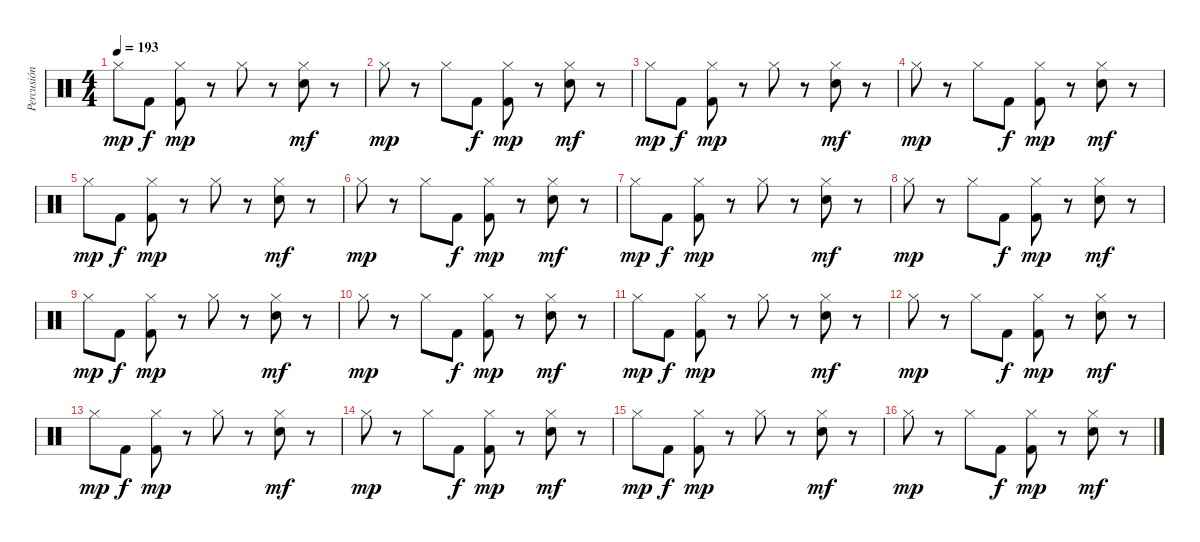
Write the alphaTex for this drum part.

\track ("Percusión" "Percusión") {instrument percussion}
\staff {score}
\articulation defaults
\ts (4 4)
\tempo 193
\clef neutral
\ks c "Hi-Hat (closed)".8{dy mp} "Kick (hit) 2".8{dy f}
("Hi-Hat (closed)" "Kick (hit) 2").8{dy mp} r.8 "Hi-Hat (closed)".8 r.8 ("Hi-Hat (closed)" "Electric Snare (hit)").8{dy mf} r.8 |
"Hi-Hat (closed)".8{dy mp} r.8 "Hi-Hat (closed)".8 "Kick (hit) 2".8{dy f} ("Hi-Hat (closed)" "Kick (hit) 2").8{dy mp} r.8 ("Hi-Hat (closed)" "Electric Snare (hit)").8{dy mf} r.8 |
"Hi-Hat (closed)".8{dy mp} "Kick (hit) 2".8{dy f} ("Hi-Hat (closed)" "Kick (hit) 2").8{dy mp} r.8 "Hi-Hat (closed)".8 r.8 ("Hi-Hat (closed)" "Electric Snare (hit)").8{dy mf} r.8 |
"Hi-Hat (closed)".8{dy mp} r.8 "Hi-Hat (closed)".8 "Kick (hit) 2".8{dy f} ("Hi-Hat (closed)" "Kick (hit) 2").8{dy mp} r.8 ("Hi-Hat (closed)" "Electric Snare (hit)").8{dy mf} r.8 |
"Hi-Hat (closed)".8{dy mp} "Kick (hit) 2".8{dy f} ("Hi-Hat (closed)" "Kick (hit) 2").8{dy mp} r.8 "Hi-Hat (closed)".8 r.8 ("Hi-Hat (closed)" "Electric Snare (hit)").8{dy mf} r.8 |
"Hi-Hat (closed)".8{dy mp} r.8 "Hi-Hat (closed)".8 "Kick (hit) 2".8{dy f} ("Hi-Hat (closed)" "Kick (hit) 2").8{dy mp} r.8 ("Hi-Hat (closed)" "Electric Snare (hit)").8{dy mf} r.8 |
"Hi-Hat (closed)".8{dy mp} "Kick (hit) 2".8{dy f} ("Hi-Hat (closed)" "Kick (hit) 2").8{dy mp} r.8 "Hi-Hat (closed)".8 r.8 ("Hi-Hat (closed)" "Electric Snare (hit)").8{dy mf} r.8 |
"Hi-Hat (closed)".8{dy mp} r.8 "Hi-Hat (closed)".8 "Kick (hit) 2".8{dy f} ("Hi-Hat (closed)" "Kick (hit) 2").8{dy mp} r.8 ("Hi-Hat (closed)" "Electric Snare (hit)").8{dy mf} r.8 |
"Hi-Hat (closed)".8{dy mp} "Kick (hit) 2".8{dy f} ("Hi-Hat (closed)" "Kick (hit) 2").8{dy mp} r.8 "Hi-Hat (closed)".8 r.8 ("Hi-Hat (closed)" "Electric Snare (hit)").8{dy mf} r.8 |
"Hi-Hat (closed)".8{dy mp} r.8 "Hi-Hat (closed)".8 "Kick (hit) 2".8{dy f} ("Hi-Hat (closed)" "Kick (hit) 2").8{dy mp} r.8 ("Hi-Hat (closed)" "Electric Snare (hit)").8{dy mf} r.8 |
"Hi-Hat (closed)".8{dy mp} "Kick (hit) 2".8{dy f} ("Hi-Hat (closed)" "Kick (hit) 2").8{dy mp} r.8 "Hi-Hat (closed)".8 r.8 ("Hi-Hat (closed)" "Electric Snare (hit)").8{dy mf} r.8 |
"Hi-Hat (closed)".8{dy mp} r.8 "Hi-Hat (closed)".8 "Kick (hit) 2".8{dy f} ("Hi-Hat (closed)" "Kick (hit) 2").8{dy mp} r.8 ("Hi-Hat (closed)" "Electric Snare (hit)").8{dy mf} r.8 |
"Hi-Hat (closed)".8{dy mp} "Kick (hit) 2".8{dy f} ("Hi-Hat (closed)" "Kick (hit) 2").8{dy mp} r.8 "Hi-Hat (closed)".8 r.8 ("Hi-Hat (closed)" "Electric Snare (hit)").8{dy mf} r.8 |
"Hi-Hat (closed)".8{dy mp} r.8 "Hi-Hat (closed)".8 "Kick (hit) 2".8{dy f} ("Hi-Hat (closed)" "Kick (hit) 2").8{dy mp} r.8 ("Hi-Hat (closed)" "Electric Snare (hit)").8{dy mf} r.8 |
"Hi-Hat (closed)".8{dy mp} "Kick (hit) 2".8{dy f} ("Hi-Hat (closed)" "Kick (hit) 2").8{dy mp} r.8 "Hi-Hat (closed)".8 r.8 ("Hi-Hat (closed)" "Electric Snare (hit)").8{dy mf} r.8 |
"Hi-Hat (closed)".8{dy mp} r.8 "Hi-Hat (closed)".8 "Kick (hit) 2".8{dy f} ("Hi-Hat (closed)" "Kick (hit) 2").8{dy mp} r.8 ("Hi-Hat (closed)" "Electric Snare (hit)").8{dy mf} r.8
